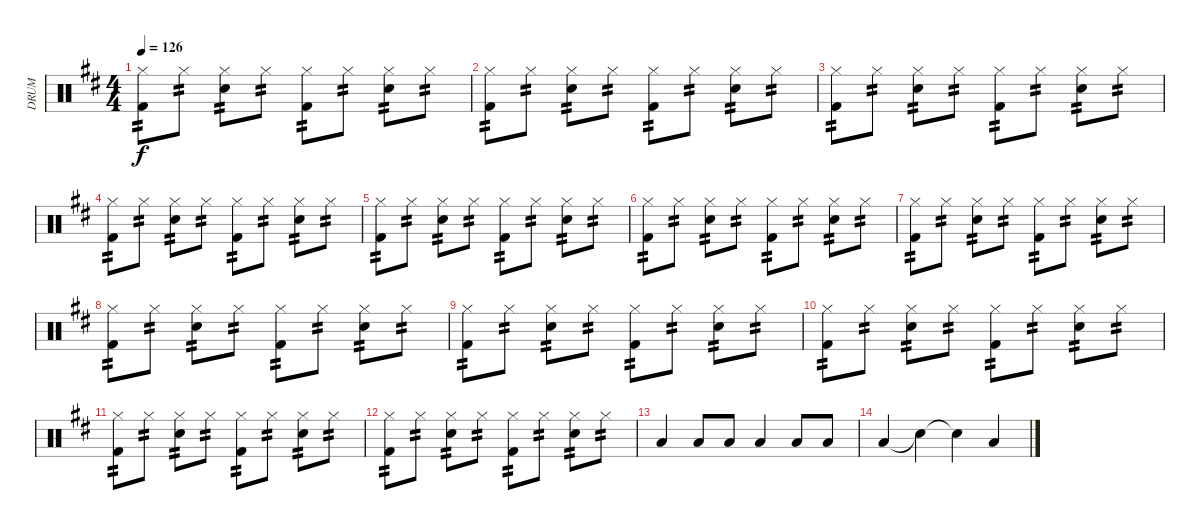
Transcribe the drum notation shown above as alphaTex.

\track ("DRUM" "DRUM") {instrument percussion}
\staff {score}
\articulation defaults
\ts (4 4)
\tempo 126
\clef neutral
\ks d
("Hi-Hat (closed)" "Kick (hit) 2").8{tp 2 dy f} "Hi-Hat (closed)".8{tp 2} ("Hi-Hat (closed)" "Electric Snare (hit)").8{tp 2} "Hi-Hat (closed)".8{tp 2} ("Hi-Hat (closed)" "Kick (hit) 2").8{tp 2} "Hi-Hat (closed)".8{tp 2} ("Hi-Hat (closed)" "Electric Snare (hit)").8{tp 2} "Hi-Hat (closed)".8{tp 2} |
("Hi-Hat (closed)" "Kick (hit) 2").8{tp 2} "Hi-Hat (closed)".8{tp 2} ("Hi-Hat (closed)" "Electric Snare (hit)").8{tp 2} "Hi-Hat (closed)".8{tp 2} ("Hi-Hat (closed)" "Kick (hit) 2").8{tp 2} "Hi-Hat (closed)".8{tp 2} ("Hi-Hat (closed)" "Electric Snare (hit)").8{tp 2} "Hi-Hat (closed)".8{tp 2} |
("Hi-Hat (closed)" "Kick (hit) 2").8{tp 2} "Hi-Hat (closed)".8{tp 2} ("Hi-Hat (closed)" "Electric Snare (hit)").8{tp 2} "Hi-Hat (closed)".8{tp 2} ("Hi-Hat (closed)" "Kick (hit) 2").8{tp 2} "Hi-Hat (closed)".8{tp 2} ("Hi-Hat (closed)" "Electric Snare (hit)").8{tp 2} "Hi-Hat (closed)".8{tp 2} |
("Hi-Hat (closed)" "Kick (hit) 2").8{tp 2} "Hi-Hat (closed)".8{tp 2} ("Hi-Hat (closed)" "Electric Snare (hit)").8{tp 2} "Hi-Hat (closed)".8{tp 2} ("Hi-Hat (closed)" "Kick (hit) 2").8{tp 2} "Hi-Hat (closed)".8{tp 2} ("Hi-Hat (closed)" "Electric Snare (hit)").8{tp 2} "Hi-Hat (closed)".8{tp 2} |
("Hi-Hat (closed)" "Kick (hit) 2").8{tp 2} "Hi-Hat (closed)".8{tp 2} ("Hi-Hat (closed)" "Electric Snare (hit)").8{tp 2} "Hi-Hat (closed)".8{tp 2} ("Hi-Hat (closed)" "Kick (hit) 2").8{tp 2} "Hi-Hat (closed)".8{tp 2} ("Hi-Hat (closed)" "Electric Snare (hit)").8{tp 2} "Hi-Hat (closed)".8{tp 2} |
("Hi-Hat (closed)" "Kick (hit) 2").8{tp 2} "Hi-Hat (closed)".8{tp 2} ("Hi-Hat (closed)" "Electric Snare (hit)").8{tp 2} "Hi-Hat (closed)".8{tp 2} ("Hi-Hat (closed)" "Kick (hit) 2").8{tp 2} "Hi-Hat (closed)".8{tp 2} ("Hi-Hat (closed)" "Electric Snare (hit)").8{tp 2} "Hi-Hat (closed)".8{tp 2} |
("Hi-Hat (closed)" "Kick (hit) 2").8{tp 2} "Hi-Hat (closed)".8{tp 2} ("Hi-Hat (closed)" "Electric Snare (hit)").8{tp 2} "Hi-Hat (closed)".8{tp 2} ("Hi-Hat (closed)" "Kick (hit) 2").8{tp 2} "Hi-Hat (closed)".8{tp 2} ("Hi-Hat (closed)" "Electric Snare (hit)").8{tp 2} "Hi-Hat (closed)".8{tp 2} |
("Hi-Hat (closed)" "Kick (hit) 2").8{tp 2} "Hi-Hat (closed)".8{tp 2} ("Hi-Hat (closed)" "Electric Snare (hit)").8{tp 2} "Hi-Hat (closed)".8{tp 2} ("Hi-Hat (closed)" "Kick (hit) 2").8{tp 2} "Hi-Hat (closed)".8{tp 2} ("Hi-Hat (closed)" "Electric Snare (hit)").8{tp 2} "Hi-Hat (closed)".8{tp 2} |
("Hi-Hat (closed)" "Kick (hit) 2").8{tp 2} "Hi-Hat (closed)".8{tp 2} ("Hi-Hat (closed)" "Electric Snare (hit)").8{tp 2} "Hi-Hat (closed)".8{tp 2} ("Hi-Hat (closed)" "Kick (hit) 2").8{tp 2} "Hi-Hat (closed)".8{tp 2} ("Hi-Hat (closed)" "Electric Snare (hit)").8{tp 2} "Hi-Hat (closed)".8{tp 2} |
("Hi-Hat (closed)" "Kick (hit) 2").8{tp 2} "Hi-Hat (closed)".8{tp 2} ("Hi-Hat (closed)" "Electric Snare (hit)").8{tp 2} "Hi-Hat (closed)".8{tp 2} ("Hi-Hat (closed)" "Kick (hit) 2").8{tp 2} "Hi-Hat (closed)".8{tp 2} ("Hi-Hat (closed)" "Electric Snare (hit)").8{tp 2} "Hi-Hat (closed)".8{tp 2} |
("Hi-Hat (closed)" "Kick (hit) 2").8{tp 2} "Hi-Hat (closed)".8{tp 2} ("Hi-Hat (closed)" "Electric Snare (hit)").8{tp 2} "Hi-Hat (closed)".8{tp 2} ("Hi-Hat (closed)" "Kick (hit) 2").8{tp 2} "Hi-Hat (closed)".8{tp 2} ("Hi-Hat (closed)" "Electric Snare (hit)").8{tp 2} "Hi-Hat (closed)".8{tp 2} |
("Hi-Hat (closed)" "Kick (hit) 2").8{tp 2} "Hi-Hat (closed)".8{tp 2} ("Hi-Hat (closed)" "Electric Snare (hit)").8{tp 2} "Hi-Hat (closed)".8{tp 2} ("Hi-Hat (closed)" "Kick (hit) 2").8{tp 2} "Hi-Hat (closed)".8{tp 2} ("Hi-Hat (closed)" "Electric Snare (hit)").8{tp 2} "Hi-Hat (closed)".8{tp 2} |
"Low Floor Tom (hit)".4 "Low Floor Tom (hit)".8 "Low Floor Tom (hit)".8 "Low Floor Tom (hit)".4 "Low Floor Tom (hit)".8 "Low Floor Tom (hit)".8 |
"Low Floor Tom (hit)".4 "Snare (hit)"{t}.4 "Snare (hit)"{t}.4 "Low Floor Tom (hit)".4
